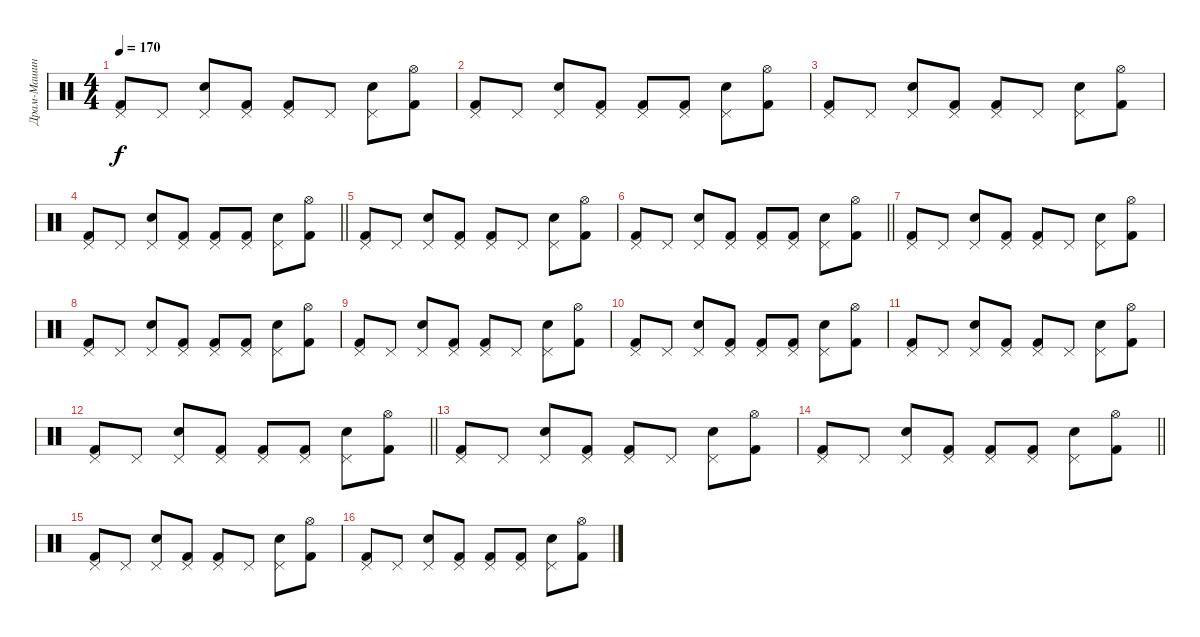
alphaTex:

\track ("Драм-Машина" "Драм-Машин") {instrument percussion}
\staff {score}
\articulation defaults
\ts (4 4)
\tempo 170
\clef neutral
\ks c
("Pedal Hi-Hat (hit)" "Kick (hit) 2").8{dy f} "Pedal Hi-Hat (hit)".8 ("Pedal Hi-Hat (hit)" "Electric Snare (hit)").8 ("Pedal Hi-Hat (hit)" "Kick (hit) 2").8 ("Pedal Hi-Hat (hit)" "Kick (hit) 2").8 "Pedal Hi-Hat (hit)".8 ("Pedal Hi-Hat (hit)" "Electric Snare (hit)").8 ("Hi-Hat (open)" "Kick (hit) 2").8 |
("Pedal Hi-Hat (hit)" "Kick (hit) 2").8 "Pedal Hi-Hat (hit)".8 ("Pedal Hi-Hat (hit)" "Electric Snare (hit)").8 ("Pedal Hi-Hat (hit)" "Kick (hit) 2").8 ("Pedal Hi-Hat (hit)" "Kick (hit) 2").8 ("Pedal Hi-Hat (hit)" "Kick (hit) 2").8 ("Pedal Hi-Hat (hit)" "Electric Snare (hit)").8 ("Hi-Hat (open)" "Kick (hit) 2").8 |
("Pedal Hi-Hat (hit)" "Kick (hit) 2").8 "Pedal Hi-Hat (hit)".8 ("Pedal Hi-Hat (hit)" "Electric Snare (hit)").8 ("Pedal Hi-Hat (hit)" "Kick (hit) 2").8 ("Pedal Hi-Hat (hit)" "Kick (hit) 2").8 "Pedal Hi-Hat (hit)".8 ("Pedal Hi-Hat (hit)" "Electric Snare (hit)").8 ("Hi-Hat (open)" "Kick (hit) 2").8 |
\barLineRight lightlight
("Pedal Hi-Hat (hit)" "Kick (hit) 2").8 "Pedal Hi-Hat (hit)".8 ("Pedal Hi-Hat (hit)" "Electric Snare (hit)").8 ("Pedal Hi-Hat (hit)" "Kick (hit) 2").8 ("Pedal Hi-Hat (hit)" "Kick (hit) 2").8 ("Pedal Hi-Hat (hit)" "Kick (hit) 2").8 ("Pedal Hi-Hat (hit)" "Electric Snare (hit)").8 ("Hi-Hat (open)" "Kick (hit) 2").8 |
("Pedal Hi-Hat (hit)" "Kick (hit) 2").8 "Pedal Hi-Hat (hit)".8 ("Pedal Hi-Hat (hit)" "Electric Snare (hit)").8 ("Pedal Hi-Hat (hit)" "Kick (hit) 2").8 ("Pedal Hi-Hat (hit)" "Kick (hit) 2").8 "Pedal Hi-Hat (hit)".8 ("Pedal Hi-Hat (hit)" "Electric Snare (hit)").8 ("Hi-Hat (open)" "Kick (hit) 2").8 |
\barLineRight lightlight
("Pedal Hi-Hat (hit)" "Kick (hit) 2").8 "Pedal Hi-Hat (hit)".8 ("Pedal Hi-Hat (hit)" "Electric Snare (hit)").8 ("Pedal Hi-Hat (hit)" "Kick (hit) 2").8 ("Pedal Hi-Hat (hit)" "Kick (hit) 2").8 ("Pedal Hi-Hat (hit)" "Kick (hit) 2").8 ("Pedal Hi-Hat (hit)" "Electric Snare (hit)").8 ("Hi-Hat (open)" "Kick (hit) 2").8 |
("Pedal Hi-Hat (hit)" "Kick (hit) 2").8 "Pedal Hi-Hat (hit)".8 ("Pedal Hi-Hat (hit)" "Electric Snare (hit)").8 ("Pedal Hi-Hat (hit)" "Kick (hit) 2").8 ("Pedal Hi-Hat (hit)" "Kick (hit) 2").8 "Pedal Hi-Hat (hit)".8 ("Pedal Hi-Hat (hit)" "Electric Snare (hit)").8 ("Hi-Hat (open)" "Kick (hit) 2").8 |
("Pedal Hi-Hat (hit)" "Kick (hit) 2").8 "Pedal Hi-Hat (hit)".8 ("Pedal Hi-Hat (hit)" "Electric Snare (hit)").8 ("Pedal Hi-Hat (hit)" "Kick (hit) 2").8 ("Pedal Hi-Hat (hit)" "Kick (hit) 2").8 ("Pedal Hi-Hat (hit)" "Kick (hit) 2").8 ("Pedal Hi-Hat (hit)" "Electric Snare (hit)").8 ("Hi-Hat (open)" "Kick (hit) 2").8 |
("Pedal Hi-Hat (hit)" "Kick (hit) 2").8 "Pedal Hi-Hat (hit)".8 ("Pedal Hi-Hat (hit)" "Electric Snare (hit)").8 ("Pedal Hi-Hat (hit)" "Kick (hit) 2").8 ("Pedal Hi-Hat (hit)" "Kick (hit) 2").8 "Pedal Hi-Hat (hit)".8 ("Pedal Hi-Hat (hit)" "Electric Snare (hit)").8 ("Hi-Hat (open)" "Kick (hit) 2").8 |
("Pedal Hi-Hat (hit)" "Kick (hit) 2").8 "Pedal Hi-Hat (hit)".8 ("Pedal Hi-Hat (hit)" "Electric Snare (hit)").8 ("Pedal Hi-Hat (hit)" "Kick (hit) 2").8 ("Pedal Hi-Hat (hit)" "Kick (hit) 2").8 ("Pedal Hi-Hat (hit)" "Kick (hit) 2").8 ("Pedal Hi-Hat (hit)" "Electric Snare (hit)").8 ("Hi-Hat (open)" "Kick (hit) 2").8 |
("Pedal Hi-Hat (hit)" "Kick (hit) 2").8 "Pedal Hi-Hat (hit)".8 ("Pedal Hi-Hat (hit)" "Electric Snare (hit)").8 ("Pedal Hi-Hat (hit)" "Kick (hit) 2").8 ("Pedal Hi-Hat (hit)" "Kick (hit) 2").8 "Pedal Hi-Hat (hit)".8 ("Pedal Hi-Hat (hit)" "Electric Snare (hit)").8 ("Hi-Hat (open)" "Kick (hit) 2").8 |
\barLineRight lightlight
("Pedal Hi-Hat (hit)" "Kick (hit) 2").8 "Pedal Hi-Hat (hit)".8 ("Pedal Hi-Hat (hit)" "Electric Snare (hit)").8 ("Pedal Hi-Hat (hit)" "Kick (hit) 2").8 ("Pedal Hi-Hat (hit)" "Kick (hit) 2").8 ("Pedal Hi-Hat (hit)" "Kick (hit) 2").8 ("Pedal Hi-Hat (hit)" "Electric Snare (hit)").8 ("Hi-Hat (open)" "Kick (hit) 2").8 |
("Pedal Hi-Hat (hit)" "Kick (hit) 2").8 "Pedal Hi-Hat (hit)".8 ("Pedal Hi-Hat (hit)" "Electric Snare (hit)").8 ("Pedal Hi-Hat (hit)" "Kick (hit) 2").8 ("Pedal Hi-Hat (hit)" "Kick (hit) 2").8 "Pedal Hi-Hat (hit)".8 ("Pedal Hi-Hat (hit)" "Electric Snare (hit)").8 ("Hi-Hat (open)" "Kick (hit) 2").8 |
\barLineRight lightlight
("Pedal Hi-Hat (hit)" "Kick (hit) 2").8 "Pedal Hi-Hat (hit)".8 ("Pedal Hi-Hat (hit)" "Electric Snare (hit)").8 ("Pedal Hi-Hat (hit)" "Kick (hit) 2").8 ("Pedal Hi-Hat (hit)" "Kick (hit) 2").8 ("Pedal Hi-Hat (hit)" "Kick (hit) 2").8 ("Pedal Hi-Hat (hit)" "Electric Snare (hit)").8 ("Hi-Hat (open)" "Kick (hit) 2").8 |
("Pedal Hi-Hat (hit)" "Kick (hit) 2").8 "Pedal Hi-Hat (hit)".8 ("Pedal Hi-Hat (hit)" "Electric Snare (hit)").8 ("Pedal Hi-Hat (hit)" "Kick (hit) 2").8 ("Pedal Hi-Hat (hit)" "Kick (hit) 2").8 "Pedal Hi-Hat (hit)".8 ("Pedal Hi-Hat (hit)" "Electric Snare (hit)").8 ("Hi-Hat (open)" "Kick (hit) 2").8 |
("Pedal Hi-Hat (hit)" "Kick (hit) 2").8 "Pedal Hi-Hat (hit)".8 ("Pedal Hi-Hat (hit)" "Electric Snare (hit)").8 ("Pedal Hi-Hat (hit)" "Kick (hit) 2").8 ("Pedal Hi-Hat (hit)" "Kick (hit) 2").8 ("Pedal Hi-Hat (hit)" "Kick (hit) 2").8 ("Pedal Hi-Hat (hit)" "Electric Snare (hit)").8 ("Hi-Hat (open)" "Kick (hit) 2").8
